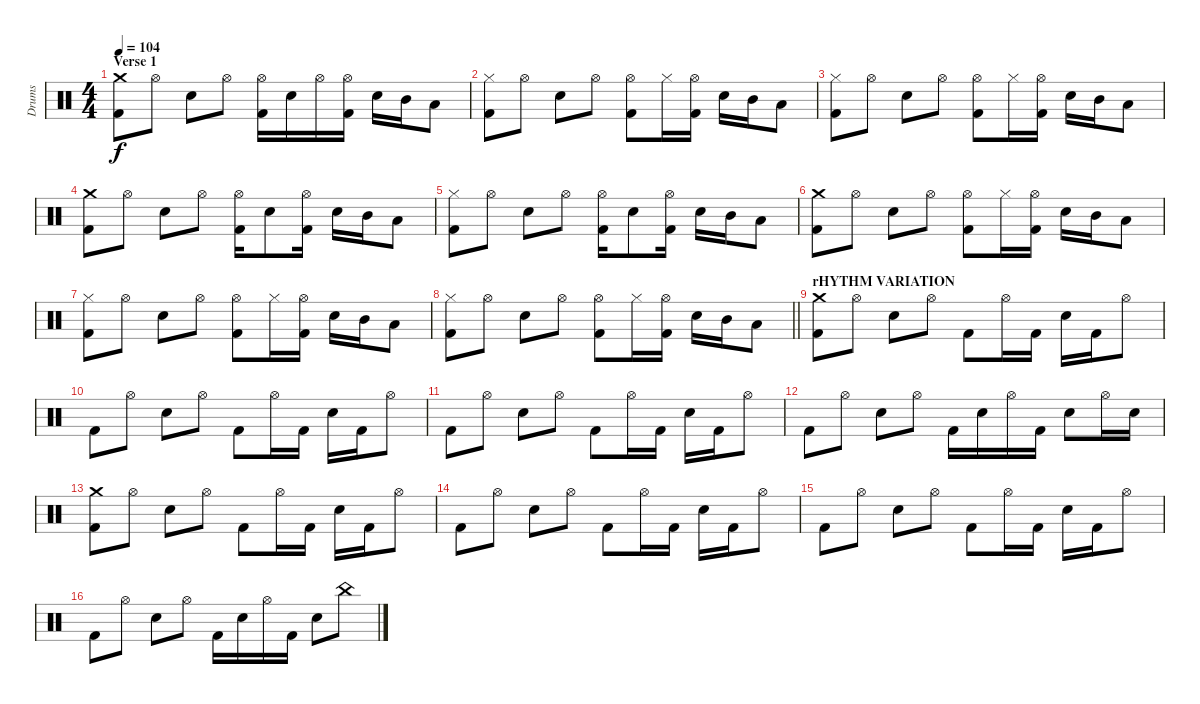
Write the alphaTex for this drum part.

\track ("Drums" "Drums") {instrument percussion}
\staff {score}
\articulation defaults
\ts (4 4)
\section ("" "Verse 1")
\tempo 104
\clef neutral
\ks c
("Crash medium (hit)" "Kick (hit) 2").8{dy f} "Hi-Hat (open)".8 "Electric Snare (hit)".8 "Hi-Hat (open)".8 ("Hi-Hat (open)" "Kick (hit) 2").16 "Electric Snare (hit)".16 "Hi-Hat (open)".16 ("Hi-Hat (open)" "Kick (hit) 2").16 "Electric Snare (hit)".16 "Mid Tom (hit)".16 "Low Tom (hit)".8 |
("Hi-Hat (closed)" "Kick (hit) 2").8 "Hi-Hat (open)".8 "Electric Snare (hit)".8 "Hi-Hat (open)".8 ("Hi-Hat (open)" "Kick (hit) 2").8 "Hi-Hat (closed)".16 ("Hi-Hat (open)" "Kick (hit) 2").16 "Electric Snare (hit)".16 "Mid Tom (hit)".16 "Low Tom (hit)".8 |
("Hi-Hat (closed)" "Kick (hit) 2").8 "Hi-Hat (open)".8 "Electric Snare (hit)".8 "Hi-Hat (open)".8 ("Hi-Hat (open)" "Kick (hit) 2").8 "Hi-Hat (closed)".16 ("Hi-Hat (open)" "Kick (hit) 2").16 "Electric Snare (hit)".16 "Mid Tom (hit)".16 "Low Tom (hit)".8 |
("Crash medium (hit)" "Kick (hit) 2").8 "Hi-Hat (open)".8 "Electric Snare (hit)".8 "Hi-Hat (open)".8 ("Hi-Hat (open)" "Kick (hit) 2").16 "Electric Snare (hit)".8 ("Hi-Hat (open)" "Kick (hit) 2").16 "Electric Snare (hit)".16 "Mid Tom (hit)".16 "Low Tom (hit)".8 |
("Hi-Hat (closed)" "Kick (hit) 2").8 "Hi-Hat (open)".8 "Electric Snare (hit)".8 "Hi-Hat (open)".8 ("Hi-Hat (open)" "Kick (hit) 2").16 "Electric Snare (hit)".8 ("Hi-Hat (open)" "Kick (hit) 2").16 "Electric Snare (hit)".16 "Mid Tom (hit)".16 "Low Tom (hit)".8 |
("Crash medium (hit)" "Kick (hit) 2").8 "Hi-Hat (open)".8 "Electric Snare (hit)".8 "Hi-Hat (open)".8 ("Hi-Hat (open)" "Kick (hit) 2").8 "Hi-Hat (closed)".16 ("Hi-Hat (open)" "Kick (hit) 2").16 "Electric Snare (hit)".16 "Mid Tom (hit)".16 "Low Tom (hit)".8 |
("Hi-Hat (closed)" "Kick (hit) 2").8 "Hi-Hat (open)".8 "Electric Snare (hit)".8 "Hi-Hat (open)".8 ("Hi-Hat (open)" "Kick (hit) 2").8 "Hi-Hat (closed)".16 ("Hi-Hat (open)" "Kick (hit) 2").16 "Electric Snare (hit)".16 "Mid Tom (hit)".16 "Low Tom (hit)".8 |
\barLineRight lightlight
("Hi-Hat (closed)" "Kick (hit) 2").8 "Hi-Hat (open)".8 "Electric Snare (hit)".8 "Hi-Hat (open)".8 ("Hi-Hat (open)" "Kick (hit) 2").8 "Hi-Hat (closed)".16 ("Hi-Hat (open)" "Kick (hit) 2").16 "Electric Snare (hit)".16 "Mid Tom (hit)".16 "Low Tom (hit)".8 |
\section ("" "rHYTHM VARIATION")
("Crash medium (hit)" "Kick (hit) 2").8 "Hi-Hat (open)".8 "Electric Snare (hit)".8 "Hi-Hat (open)".8 "Kick (hit) 2".8 "Hi-Hat (open)".16 "Kick (hit) 2".16 "Electric Snare (hit)".16 "Kick (hit) 2".16 "Hi-Hat (open)".8 |
"Kick (hit) 2".8 "Hi-Hat (open)".8 "Electric Snare (hit)".8 "Hi-Hat (open)".8 "Kick (hit) 2".8 "Hi-Hat (open)".16 "Kick (hit) 2".16 "Electric Snare (hit)".16 "Kick (hit) 2".16 "Hi-Hat (open)".8 |
"Kick (hit) 2".8 "Hi-Hat (open)".8 "Electric Snare (hit)".8 "Hi-Hat (open)".8 "Kick (hit) 2".8 "Hi-Hat (open)".16 "Kick (hit) 2".16 "Electric Snare (hit)".16 "Kick (hit) 2".16 "Hi-Hat (open)".8 |
"Kick (hit) 2".8 "Hi-Hat (open)".8 "Electric Snare (hit)".8 "Hi-Hat (open)".8 "Kick (hit) 2".16 "Electric Snare (hit)".16 "Hi-Hat (open)".16 "Kick (hit) 2".16 "Electric Snare (hit)".8 "Hi-Hat (open)".16 "Electric Snare (hit)".16 |
("Crash medium (hit)" "Kick (hit) 2").8 "Hi-Hat (open)".8 "Electric Snare (hit)".8 "Hi-Hat (open)".8 "Kick (hit) 2".8 "Hi-Hat (open)".16 "Kick (hit) 2".16 "Electric Snare (hit)".16 "Kick (hit) 2".16 "Hi-Hat (open)".8 |
"Kick (hit) 2".8 "Hi-Hat (open)".8 "Electric Snare (hit)".8 "Hi-Hat (open)".8 "Kick (hit) 2".8 "Hi-Hat (open)".16 "Kick (hit) 2".16 "Electric Snare (hit)".16 "Kick (hit) 2".16 "Hi-Hat (open)".8 |
"Kick (hit) 2".8 "Hi-Hat (open)".8 "Electric Snare (hit)".8 "Hi-Hat (open)".8 "Kick (hit) 2".8 "Hi-Hat (open)".16 "Kick (hit) 2".16 "Electric Snare (hit)".16 "Kick (hit) 2".16 "Hi-Hat (open)".8 |
"Kick (hit) 2".8 "Hi-Hat (open)".8 "Electric Snare (hit)".8 "Hi-Hat (open)".8 "Kick (hit) 2".16 "Electric Snare (hit)".16 "Hi-Hat (open)".16 "Kick (hit) 2".16 "Electric Snare (hit)".8 "China (hit)".8
